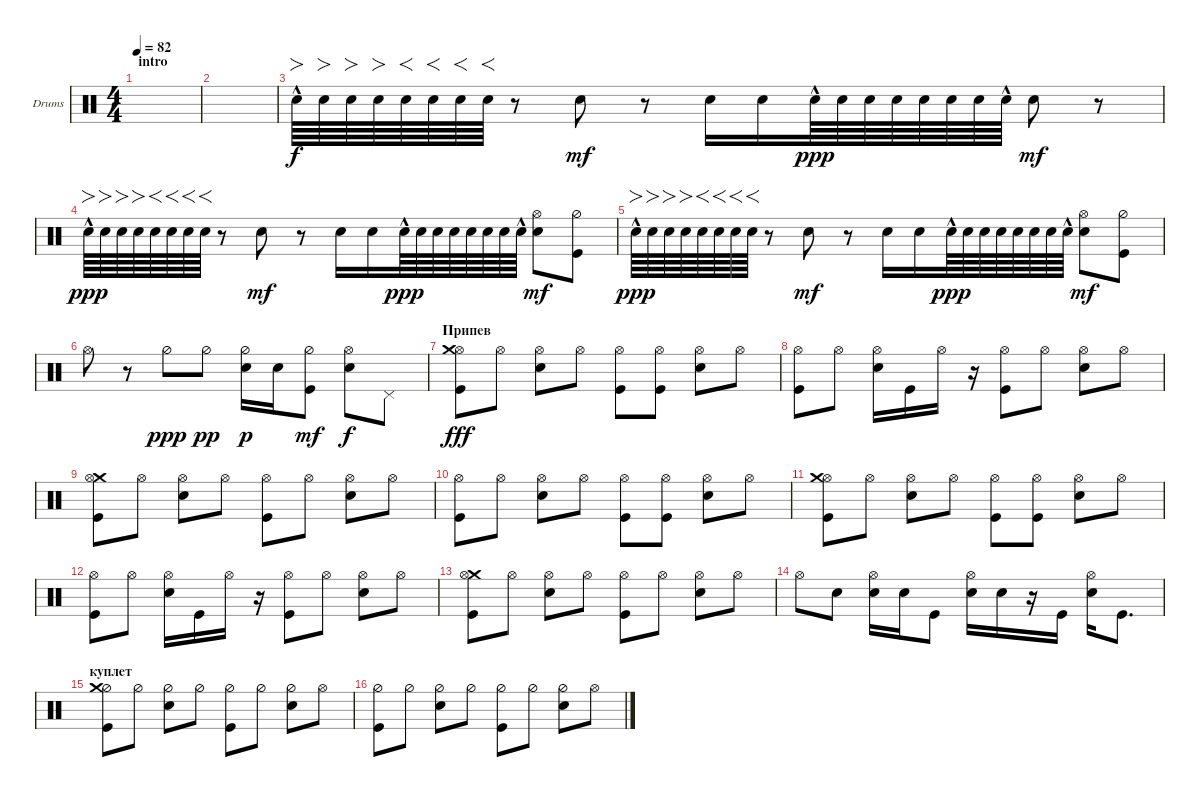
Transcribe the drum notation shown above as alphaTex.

\defaultSystemsLayout 4
\bracketExtendMode groupsimilarinstruments
\firstSystemTrackNameOrientation horizontal
\otherSystemsTrackNameOrientation horizontal
\track ("Drumkit" "Drums") {instrument percussion}
\staff {score}
\articulation defaults
\ts (4 4)
\section ("" "intro")
\tempo 82
\clef neutral
\scale
0.472222
\ks c
|
\scale
0.263889 |
\scale
0.263889 "Snare (hit) 2"{hac}.64{fo} "Snare (hit) 2".64{fo} "Snare (hit) 2".64{fo} "Snare (hit) 2".64{fo} "Snare (hit) 2".64{f} "Snare (hit) 2".64{f} "Snare (hit) 2".64{f} "Snare (hit) 2".64{f} r.8 "Snare (hit) 2".8{dy mf} r.8 "Snare (hit) 2".16 "Snare (hit) 2".16 "Snare (hit) 2"{hac}.64{dy ppp} "Snare (hit) 2".64 "Snare (hit) 2".64 "Snare (hit) 2".64 "Snare (hit) 2".64 "Snare (hit) 2".64 "Snare (hit) 2".64 "Snare (hit) 2"{hac}.64 "Snare (hit) 2".8{dy mf} r.8 |
\scale
0.333333 "Snare (hit) 2"{hac}.64{fo dy ppp} "Snare (hit) 2".64{fo} "Snare (hit) 2".64{fo} "Snare (hit) 2".64{fo} "Snare (hit) 2".64{f} "Snare (hit) 2".64{f} "Snare (hit) 2".64{f} "Snare (hit) 2".64{f} r.8 "Snare (hit) 2".8{dy mf} r.8 "Snare (hit) 2".16 "Snare (hit) 2".16 "Snare (hit) 2"{hac}.64{dy ppp} "Snare (hit) 2".64 "Snare (hit) 2".64 "Snare (hit) 2".64 "Snare (hit) 2".64 "Snare (hit) 2".64 "Snare (hit) 2".64 "Snare (hit) 2"{hac}.64 ("Snare (hit) 2" "Hi-Hat (open)").8{dy mf} ("Kick (hit)" "Hi-Hat (half)").8 |
\scale
0.333333 "Snare (hit) 2"{hac}.64{fo dy ppp} "Snare (hit) 2".64{fo} "Snare (hit) 2".64{fo} "Snare (hit) 2".64{fo} "Snare (hit) 2".64{f} "Snare (hit) 2".64{f} "Snare (hit) 2".64{f} "Snare (hit) 2".64{f} r.8 "Snare (hit) 2".8{dy mf} r.8 "Snare (hit) 2".16 "Snare (hit) 2".16 "Snare (hit) 2"{hac}.64{dy ppp} "Snare (hit) 2".64 "Snare (hit) 2".64 "Snare (hit) 2".64 "Snare (hit) 2".64 "Snare (hit) 2".64 "Snare (hit) 2".64 "Snare (hit) 2"{hac}.64 ("Snare (hit) 2" "Hi-Hat (open)").8{dy mf} ("Kick (hit)" "Hi-Hat (half)").8 |
\scale
0.333333 "Hi-Hat (open)".8 r.8 "Hi-Hat (half)".8{dy ppp} "Hi-Hat (half)".8{dy pp} ("Snare (hit) 2" "Hi-Hat (half)").16{dy p} "Snare (hit) 2".16 ("Kick (hit)" "Hi-Hat (half)").8{dy mf} ("Snare (hit) 2" "Hi-Hat (open)").8{dy f} "Pedal Hi-Hat (hit)".8 |
\section ("" "Припев")
\scale
0.333333 ("Kick (hit)" "Hi-Hat (open)" "Crash medium (hit)").8{dy fff} "Hi-Hat (open)".8 ("Snare (hit) 2" "Hi-Hat (open)").8 "Hi-Hat (open)".8 ("Kick (hit)" "Hi-Hat (open)").8 ("Kick (hit)" "Hi-Hat (open)").8 ("Snare (hit) 2" "Hi-Hat (open)").8 "Hi-Hat (open)".8 |
\scale
0.333333 ("Kick (hit)" "Hi-Hat (open)").8 "Hi-Hat (open)".8 ("Snare (hit) 2" "Hi-Hat (open)").16 "Kick (hit)".16 "Hi-Hat (open)".16 r.16 ("Hi-Hat (open)" "Kick (hit)").8 "Hi-Hat (open)".8 ("Hi-Hat (open)" "Snare (hit) 2").8 "Hi-Hat (open)".8 |
\scale
0.333333 ("Kick (hit)" "Crash medium (hit)" "Hi-Hat (open)").8 "Hi-Hat (open)".8 ("Snare (hit) 2" "Hi-Hat (open)").8 "Hi-Hat (open)".8 ("Kick (hit)" "Hi-Hat (open)").8 "Hi-Hat (open)".8 ("Snare (hit) 2" "Hi-Hat (open)").8 "Hi-Hat (open)".8 |
\scale
0.333333 ("Kick (hit)" "Hi-Hat (open)").8 "Hi-Hat (open)".8 ("Snare (hit) 2" "Hi-Hat (open)").8 "Hi-Hat (open)".8 ("Kick (hit)" "Hi-Hat (open)").8 ("Kick (hit)" "Hi-Hat (open)").8 ("Snare (hit) 2" "Hi-Hat (open)").8 "Hi-Hat (open)".8 |
\scale
0.333333 ("Kick (hit)" "Hi-Hat (open)" "Crash medium (hit)").8 "Hi-Hat (open)".8 ("Snare (hit) 2" "Hi-Hat (open)").8 "Hi-Hat (open)".8 ("Kick (hit)" "Hi-Hat (open)").8 ("Kick (hit)" "Hi-Hat (open)").8 ("Snare (hit) 2" "Hi-Hat (open)").8 "Hi-Hat (open)".8 |
\scale
0.333333 ("Kick (hit)" "Hi-Hat (open)").8 "Hi-Hat (open)".8 ("Snare (hit) 2" "Hi-Hat (open)").16 "Kick (hit)".16 "Hi-Hat (open)".16 r.16 ("Hi-Hat (open)" "Kick (hit)").8 "Hi-Hat (open)".8 ("Hi-Hat (open)" "Snare (hit) 2").8 "Hi-Hat (open)".8 |
\scale
0.333333 ("Kick (hit)" "Crash medium (hit)" "Hi-Hat (open)").8 "Hi-Hat (open)".8 ("Snare (hit) 2" "Hi-Hat (open)").8 "Hi-Hat (open)".8 ("Kick (hit)" "Hi-Hat (open)").8 "Hi-Hat (open)".8 ("Snare (hit) 2" "Hi-Hat (open)").8 "Hi-Hat (open)".8 |
\scale
0.333333 "Hi-Hat (open)".8 "Snare (hit) 2".8 ("Snare (hit) 2" "Hi-Hat (open)").16 "Snare (hit) 2".16 "Kick (hit)".8 ("Snare (hit) 2" "Hi-Hat (open)").16 "Snare (hit) 2".16 r.16 "Kick (hit)".16 ("Snare (hit) 2" "Hi-Hat (open)").16 "Kick (hit)".8{d} |
\section ("" "куплет")
\scale
0.333333 ("Kick (hit)" "Hi-Hat (half)" "Crash medium (hit)").8 "Hi-Hat (half)".8 ("Snare (hit) 2" "Hi-Hat (half)").8 "Hi-Hat (half)".8 ("Kick (hit)" "Hi-Hat (half)").8 "Hi-Hat (half)".8 ("Snare (hit) 2" "Hi-Hat (half)").8 "Hi-Hat (open)".8 |
\scale
0.333333 ("Kick (hit)" "Hi-Hat (half)").8 "Hi-Hat (half)".8 ("Snare (hit) 2" "Hi-Hat (half)").8 "Hi-Hat (half)".8 ("Kick (hit)" "Hi-Hat (half)").8 "Hi-Hat (half)".8 ("Snare (hit) 2" "Hi-Hat (half)").8 "Hi-Hat (open)".8
